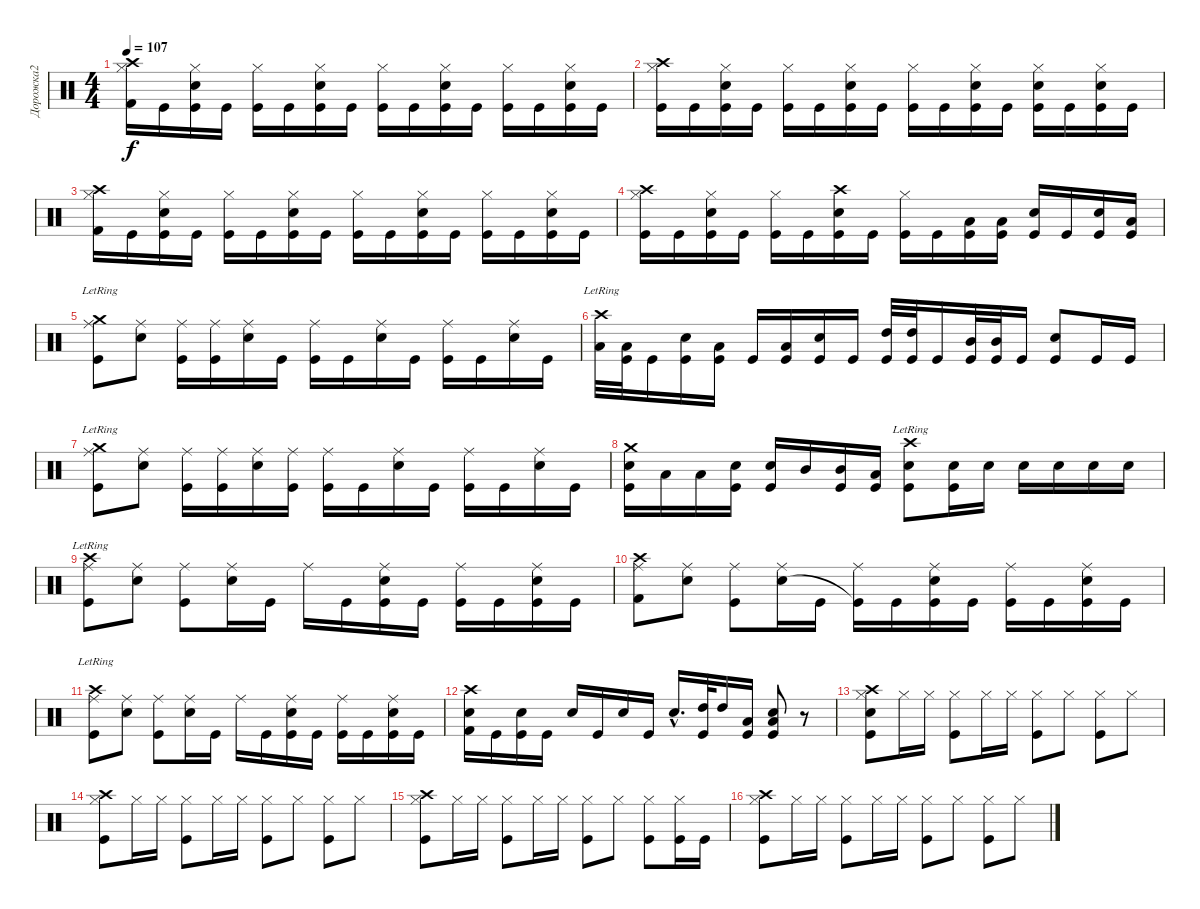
\track ("Дорожка2" "Дорожка2") {instrument percussion}
\staff {score}
\articulation defaults
\ts (4 4)
\tempo 107
\clef neutral
\ks c
("Crash high (hit)" "Hi-Hat (closed)" "Kick (hit) 2").16{dy f} "Kick (hit)".16 ("Hi-Hat (closed)" "Electric Snare (hit)" "Kick (hit)").16 "Kick (hit)".16 ("Hi-Hat (closed)" "Kick (hit)").16 "Kick (hit)".16 ("Hi-Hat (closed)" "Electric Snare (hit)" "Kick (hit)").16 "Kick (hit)".16 ("Hi-Hat (closed)" "Kick (hit)").16 "Kick (hit)".16 ("Hi-Hat (closed)" "Electric Snare (hit)" "Kick (hit)").16 "Kick (hit)".16 ("Hi-Hat (closed)" "Kick (hit)").16 "Kick (hit)".16 ("Hi-Hat (closed)" "Electric Snare (hit)" "Kick (hit)").16 "Kick (hit)".16 |
("Crash high (hit)" "Hi-Hat (closed)" "Kick (hit)").16 "Kick (hit)".16 ("Hi-Hat (closed)" "Electric Snare (hit)" "Kick (hit)").16 "Kick (hit)".16 ("Hi-Hat (closed)" "Kick (hit)").16 "Kick (hit)".16 ("Hi-Hat (closed)" "Electric Snare (hit)" "Kick (hit)").16 "Kick (hit)".16 ("Hi-Hat (closed)" "Kick (hit)").16 "Kick (hit)".16 ("Hi-Hat (closed)" "Electric Snare (hit)" "Kick (hit)").16 "Kick (hit)".16 ("Hi-Hat (closed)" "Electric Snare (hit)" "Kick (hit)").16 "Kick (hit)".16 ("Hi-Hat (closed)" "Electric Snare (hit)" "Kick (hit)").16 "Kick (hit)".16 |
("Crash high (hit)" "Hi-Hat (closed)" "Kick (hit) 2").16 "Kick (hit)".16 ("Hi-Hat (closed)" "Electric Snare (hit)" "Kick (hit)").16 "Kick (hit)".16 ("Hi-Hat (closed)" "Kick (hit)").16 "Kick (hit)".16 ("Hi-Hat (closed)" "Electric Snare (hit)" "Kick (hit)").16 "Kick (hit)".16 ("Hi-Hat (closed)" "Kick (hit)").16 "Kick (hit)".16 ("Hi-Hat (closed)" "Electric Snare (hit)" "Kick (hit)").16 "Kick (hit)".16 ("Hi-Hat (closed)" "Kick (hit)").16 "Kick (hit)".16 ("Hi-Hat (closed)" "Electric Snare (hit)" "Kick (hit)").16 "Kick (hit)".16 |
("Crash high (hit)" "Hi-Hat (closed)" "Kick (hit)").16 "Kick (hit)".16 ("Hi-Hat (closed)" "Electric Snare (hit)" "Kick (hit)").16 "Kick (hit)".16 ("Hi-Hat (closed)" "Kick (hit)").16 "Kick (hit)".16 ("Crash high (hit)" "Electric Snare (hit)" "Kick (hit)").16 "Kick (hit)".16 ("Hi-Hat (closed)" "Kick (hit)").16 "Kick (hit)".16 ("Low Tom (hit)" "Kick (hit)").16 ("Low Tom (hit)" "Kick (hit)").16 ("Electric Snare (hit)" "Kick (hit)").16 "Kick (hit)".16 ("Electric Snare (hit)" "Kick (hit)").16 ("Low Tom (hit)" "Kick (hit)").16 |
("Crash medium (hit)"{lr} "Ride (middle)" "Kick (hit)").8 ("Ride (middle)" "Electric Snare (hit)").8 ("Ride (middle)" "Kick (hit)").16 ("Ride (middle)" "Kick (hit)").16 ("Ride (middle)" "Electric Snare (hit)").16 "Kick (hit)".16 ("Ride (middle)" "Kick (hit)").16 "Kick (hit)".16 ("Ride (middle)" "Electric Snare (hit)").16 "Kick (hit)".16 ("Ride (middle)" "Kick (hit)").16 "Kick (hit)".16 ("Ride (middle)" "Electric Snare (hit)").16 "Kick (hit)".16 |
("Crash high (hit)"{lr} "Low Tom (hit)").32 ("Low Tom (hit)" "Kick (hit)").32 "Kick (hit)".16 ("Electric Snare (hit)" "Kick (hit)").16 ("Low Tom (hit)" "Kick (hit)").16 "Kick (hit)".16 ("Low Tom (hit)" "Kick (hit)").16 ("Electric Snare (hit)" "Kick (hit)").16 "Kick (hit)".16 ("High Tom (hit)" "Kick (hit)").32 ("High Tom (hit)" "Kick (hit)").32 "Kick (hit)".16 ("Mid Tom (hit)" "Kick (hit)").32 ("Mid Tom (hit)" "Kick (hit)").32 "Kick (hit)".16 ("Electric Snare (hit)" "Kick (hit)").8 "Kick (hit)".16 "Kick (hit)".16 |
("Crash medium (hit)"{lr} "Ride (middle)" "Kick (hit)").8 ("Ride (middle)" "Electric Snare (hit)").8 ("Ride (middle)" "Kick (hit)").16 ("Ride (middle)" "Kick (hit)").16 ("Ride (middle)" "Electric Snare (hit)").16 ("Ride (middle)" "Kick (hit)").16 ("Ride (middle)" "Kick (hit)").16 "Kick (hit)".16 ("Ride (middle)" "Electric Snare (hit)").16 "Kick (hit)".16 ("Ride (middle)" "Kick (hit)").16 "Kick (hit)".16 ("Ride (middle)" "Electric Snare (hit)").16 "Kick (hit)".16 |
("Crash medium (hit)" "Electric Snare (hit)" "Kick (hit)").16 "Low Tom (hit)".16 "Low Tom (hit)".16 ("Electric Snare (hit)" "Kick (hit)").16 ("Electric Snare (hit)" "Kick (hit)").16 "Mid Tom (hit)".16 ("Mid Tom (hit)" "Kick (hit)").16 ("Low Tom (hit)" "Kick (hit)").16 ("Crash high (hit)"{lr} "Electric Snare (hit)" "Kick (hit)").8 ("Electric Snare (hit)" "Kick (hit)").16 "Electric Snare (hit)".16 "Electric Snare (hit)".16 "Electric Snare (hit)".16 "Electric Snare (hit)".16 "Electric Snare (hit)".16 |
("Crash high (hit)"{lr} "Ride (middle)" "Kick (hit)").8 ("Ride (middle)" "Electric Snare (hit)").8 ("Ride (middle)" "Kick (hit)").8 ("Ride (middle)" "Electric Snare (hit)").16 "Kick (hit)".16 "Ride (middle)".16 "Kick (hit)".16 ("Ride (middle)" "Electric Snare (hit)" "Kick (hit)").16 "Kick (hit)".16 ("Ride (middle)" "Kick (hit)").16 "Kick (hit)".16 ("Ride (middle)" "Electric Snare (hit)" "Kick (hit)").16 "Kick (hit)".16 |
("Crash high (hit)" "Ride (middle)" "Kick (hit) 2").8 ("Ride (middle)" "Electric Snare (hit)").8 ("Ride (middle)" "Kick (hit)").8 ("Ride (middle)" "Electric Snare (hit)").16 "Kick (hit)".16 ("Ride (middle)" "Kick (hit)"{t}).16 "Kick (hit)".16 ("Ride (middle)" "Electric Snare (hit)" "Kick (hit)").16 "Kick (hit)".16 ("Ride (middle)" "Kick (hit)").16 "Kick (hit)".16 ("Ride (middle)" "Electric Snare (hit)" "Kick (hit)").16 "Kick (hit)".16 |
("Crash high (hit)"{lr} "Ride (middle)" "Kick (hit)").8 ("Ride (middle)" "Electric Snare (hit)").8 ("Ride (middle)" "Kick (hit)").8 ("Ride (middle)" "Electric Snare (hit)").16 "Kick (hit)".16 "Ride (middle)".16 "Kick (hit)".16 ("Ride (middle)" "Electric Snare (hit)" "Kick (hit)").16 "Kick (hit)".16 ("Ride (middle)" "Kick (hit)").16 "Kick (hit)".16 ("Ride (middle)" "Electric Snare (hit)" "Kick (hit)").16 "Kick (hit)".16 |
("Crash high (hit)" "Electric Snare (hit)" "Kick (hit) 2").16 "Kick (hit)".16 ("Electric Snare (hit)" "Kick (hit)").16 "Kick (hit)".16 "Electric Snare (hit)".16 "Kick (hit)".16 "Electric Snare (hit)".16 "Kick (hit)".16 "Electric Snare (hit)"{hac}.16{d} ("High Tom (hit)" "Kick (hit)").32 "High Tom (hit)".16 ("Low Tom (hit)" "Kick (hit)").16 ("Electric Snare (hit)" "Low Tom (hit)" "Kick (hit)").8 r.8 |
("Crash high (hit)" "Electric Snare (hit)" "Hi-Hat (closed)" "Kick (hit)").8 "Hi-Hat (closed)".16 "Hi-Hat (closed)".16 ("Hi-Hat (closed)" "Kick (hit)").8 "Hi-Hat (closed)".16 "Hi-Hat (closed)".16 ("Hi-Hat (closed)" "Kick (hit)").8 "Hi-Hat (closed)".8 ("Hi-Hat (closed)" "Kick (hit)").8 "Hi-Hat (closed)".8 |
("Crash high (hit)" "Hi-Hat (closed)" "Kick (hit)").8 "Hi-Hat (closed)".16 "Hi-Hat (closed)".16 ("Hi-Hat (closed)" "Kick (hit)").8 "Hi-Hat (closed)".16 "Hi-Hat (closed)".16 ("Hi-Hat (closed)" "Kick (hit)").8 "Hi-Hat (closed)".8 ("Hi-Hat (closed)" "Kick (hit)").8 "Hi-Hat (closed)".8 |
("Crash high (hit)" "Hi-Hat (closed)" "Kick (hit)").8 "Hi-Hat (closed)".16 "Hi-Hat (closed)".16 ("Hi-Hat (closed)" "Kick (hit)").8 "Hi-Hat (closed)".16 "Hi-Hat (closed)".16 ("Hi-Hat (closed)" "Kick (hit)").8 "Hi-Hat (closed)".8 ("Hi-Hat (closed)" "Kick (hit)").8 ("Hi-Hat (closed)" "Kick (hit)").16 "Kick (hit)".16 |
("Crash high (hit)" "Hi-Hat (closed)" "Kick (hit)").8 "Hi-Hat (closed)".16 "Hi-Hat (closed)".16 ("Hi-Hat (closed)" "Kick (hit)").8 "Hi-Hat (closed)".16 "Hi-Hat (closed)".16 ("Hi-Hat (closed)" "Kick (hit)").8 "Hi-Hat (closed)".8 ("Hi-Hat (closed)" "Kick (hit)").8 "Hi-Hat (closed)".8
